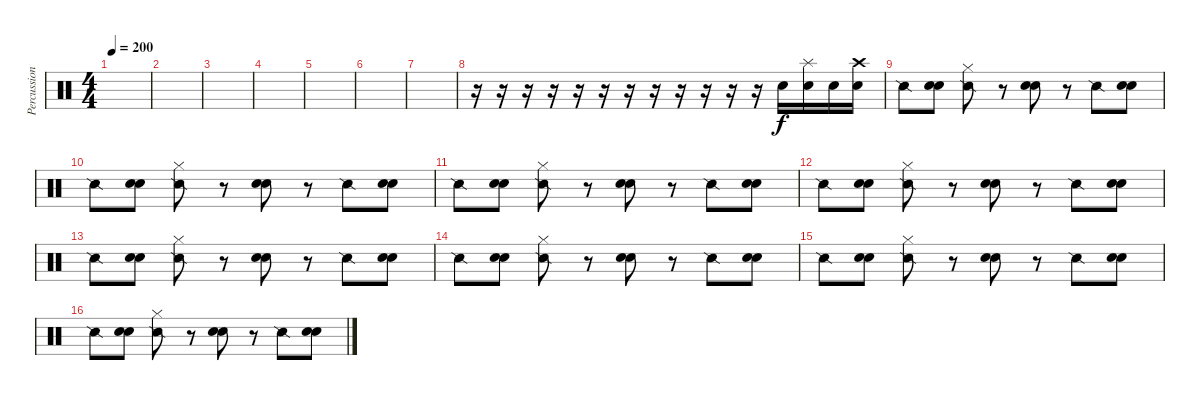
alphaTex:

\track ("Percussion" "Percussion") {instrument percussion}
\staff {score}
\articulation defaults
\ts (4 4)
\tempo 200
\clef neutral
\ks c
|
|
|
|
|
|
|
r.16 r.16 r.16 r.16 r.16 r.16 r.16 r.16 r.16 r.16 r.16 r.16 "Electric Snare (hit)".16 ("Splash (hit)" "Electric Snare (hit)").16 "Electric Snare (hit)".16 ("Crash high (hit)" "Electric Snare (hit)").16 |
"Snare (side stick) 2".8 ("Hand Clap (hit)" "Electric Snare (hit)").8 ("Snare (side stick) 2" "Hi-Hat (closed)").8 r.8 ("Hand Clap (hit)" "Electric Snare (hit)").8 r.8 "Snare (side stick) 2".8 ("Hand Clap (hit)" "Electric Snare (hit)").8 |
"Snare (side stick) 2".8 ("Hand Clap (hit)" "Electric Snare (hit)").8 ("Snare (side stick) 2" "Hi-Hat (closed)").8 r.8 ("Hand Clap (hit)" "Electric Snare (hit)").8 r.8 "Snare (side stick) 2".8 ("Hand Clap (hit)" "Electric Snare (hit)").8 |
"Snare (side stick) 2".8 ("Hand Clap (hit)" "Electric Snare (hit)").8 ("Snare (side stick) 2" "Hi-Hat (closed)").8 r.8 ("Hand Clap (hit)" "Electric Snare (hit)").8 r.8 "Snare (side stick) 2".8 ("Hand Clap (hit)" "Electric Snare (hit)").8 |
"Snare (side stick) 2".8 ("Hand Clap (hit)" "Electric Snare (hit)").8 ("Snare (side stick) 2" "Hi-Hat (closed)").8 r.8 ("Hand Clap (hit)" "Electric Snare (hit)").8 r.8 "Snare (side stick) 2".8 ("Hand Clap (hit)" "Electric Snare (hit)").8 |
"Snare (side stick) 2".8 ("Hand Clap (hit)" "Electric Snare (hit)").8 ("Snare (side stick) 2" "Hi-Hat (closed)").8 r.8 ("Hand Clap (hit)" "Electric Snare (hit)").8 r.8 "Snare (side stick) 2".8 ("Hand Clap (hit)" "Electric Snare (hit)").8 |
"Snare (side stick) 2".8 ("Hand Clap (hit)" "Electric Snare (hit)").8 ("Snare (side stick) 2" "Hi-Hat (closed)").8 r.8 ("Hand Clap (hit)" "Electric Snare (hit)").8 r.8 "Snare (side stick) 2".8 ("Hand Clap (hit)" "Electric Snare (hit)").8 |
"Snare (side stick) 2".8 ("Hand Clap (hit)" "Electric Snare (hit)").8 ("Snare (side stick) 2" "Hi-Hat (closed)").8 r.8 ("Hand Clap (hit)" "Electric Snare (hit)").8 r.8 "Snare (side stick) 2".8 ("Hand Clap (hit)" "Electric Snare (hit)").8 |
"Snare (side stick) 2".8 ("Hand Clap (hit)" "Electric Snare (hit)").8 ("Snare (side stick) 2" "Hi-Hat (closed)").8 r.8 ("Hand Clap (hit)" "Electric Snare (hit)").8 r.8 "Snare (side stick) 2".8 ("Hand Clap (hit)" "Electric Snare (hit)").8
